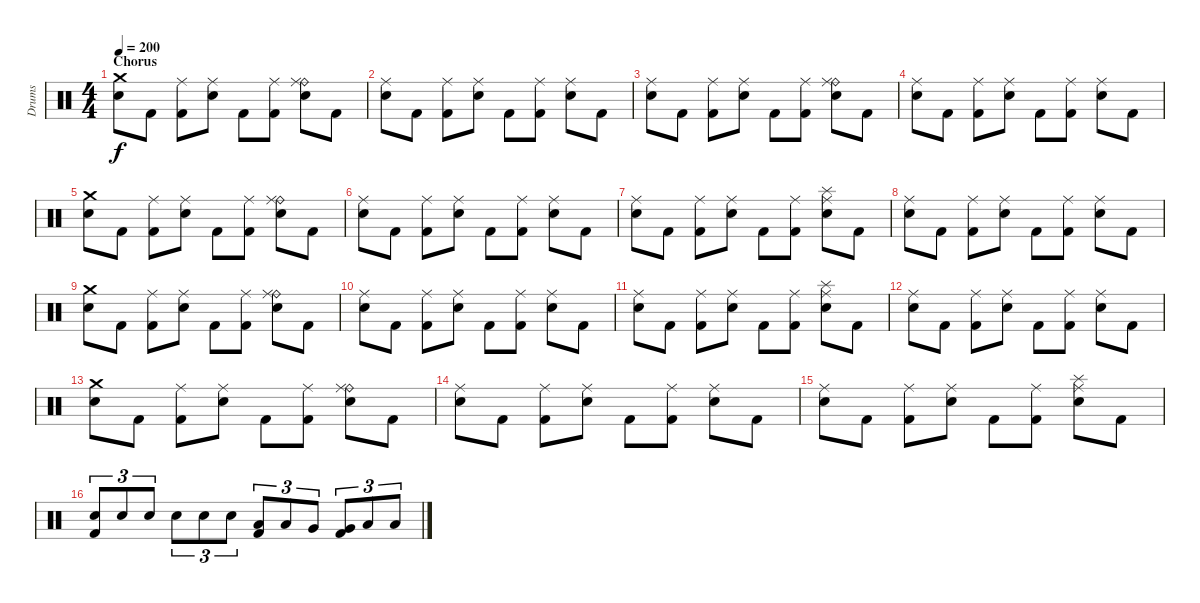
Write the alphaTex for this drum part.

\track ("Drums" "Drums") {instrument percussion}
\staff {score}
\articulation defaults
\ts (4 4)
\section ("" "Chorus")
\tempo 200
\clef neutral
\ks c
("Crash medium (hit)" "Electric Snare (hit)").8{dy f} "Kick (hit) 2".8 ("Ride (middle)" "Kick (hit) 2").8 ("Ride (middle)" "Electric Snare (hit)").8 "Kick (hit) 2".8 ("Ride (middle)" "Kick (hit) 2").8 ("Ride (bell)" "Ride (middle)" "Electric Snare (hit)").8 "Kick (hit) 2".8 |
("Ride (middle)" "Electric Snare (hit)").8 "Kick (hit) 2".8 ("Ride (middle)" "Kick (hit) 2").8 ("Ride (middle)" "Electric Snare (hit)").8 "Kick (hit) 2".8 ("Ride (middle)" "Kick (hit) 2").8 ("Ride (middle)" "Electric Snare (hit)").8 "Kick (hit) 2".8 |
("Ride (middle)" "Electric Snare (hit)").8 "Kick (hit) 2".8 ("Ride (middle)" "Kick (hit) 2").8 ("Ride (middle)" "Electric Snare (hit)").8 "Kick (hit) 2".8 ("Ride (middle)" "Kick (hit) 2").8 ("Ride (bell)" "Ride (middle)" "Electric Snare (hit)").8 "Kick (hit) 2".8 |
("Ride (middle)" "Electric Snare (hit)").8 "Kick (hit) 2".8 ("Ride (middle)" "Kick (hit) 2").8 ("Ride (middle)" "Electric Snare (hit)").8 "Kick (hit) 2".8 ("Ride (middle)" "Kick (hit) 2").8 ("Ride (middle)" "Electric Snare (hit)").8 "Kick (hit) 2".8 |
("Crash medium (hit)" "Electric Snare (hit)").8 "Kick (hit) 2".8 ("Ride (middle)" "Kick (hit) 2").8 ("Ride (middle)" "Electric Snare (hit)").8 "Kick (hit) 2".8 ("Ride (middle)" "Kick (hit) 2").8 ("Ride (bell)" "Ride (middle)" "Electric Snare (hit)").8 "Kick (hit) 2".8 |
("Ride (middle)" "Electric Snare (hit)").8 "Kick (hit) 2".8 ("Ride (middle)" "Kick (hit) 2").8 ("Ride (middle)" "Electric Snare (hit)").8 "Kick (hit) 2".8 ("Ride (middle)" "Kick (hit) 2").8 ("Ride (middle)" "Electric Snare (hit)").8 "Kick (hit) 2".8 |
("Ride (middle)" "Electric Snare (hit)").8 "Kick (hit) 2".8 ("Ride (middle)" "Kick (hit) 2").8 ("Ride (middle)" "Electric Snare (hit)").8 "Kick (hit) 2".8 ("Ride (middle)" "Kick (hit) 2").8 ("Ride (middle)" "Splash (hit)" "Electric Snare (hit)").8 "Kick (hit) 2".8 |
("Ride (middle)" "Electric Snare (hit)").8 "Kick (hit) 2".8 ("Ride (middle)" "Kick (hit) 2").8 ("Ride (middle)" "Electric Snare (hit)").8 "Kick (hit) 2".8 ("Ride (middle)" "Kick (hit) 2").8 ("Ride (middle)" "Electric Snare (hit)").8 "Kick (hit) 2".8 |
("Crash medium (hit)" "Electric Snare (hit)").8 "Kick (hit) 2".8 ("Ride (middle)" "Kick (hit) 2").8 ("Ride (middle)" "Electric Snare (hit)").8 "Kick (hit) 2".8 ("Ride (middle)" "Kick (hit) 2").8 ("Ride (bell)" "Ride (middle)" "Electric Snare (hit)").8 "Kick (hit) 2".8 |
("Ride (middle)" "Electric Snare (hit)").8 "Kick (hit) 2".8 ("Ride (middle)" "Kick (hit) 2").8 ("Ride (middle)" "Electric Snare (hit)").8 "Kick (hit) 2".8 ("Ride (middle)" "Kick (hit) 2").8 ("Ride (middle)" "Electric Snare (hit)").8 "Kick (hit) 2".8 |
("Ride (middle)" "Electric Snare (hit)").8 "Kick (hit) 2".8 ("Ride (middle)" "Kick (hit) 2").8 ("Ride (middle)" "Electric Snare (hit)").8 "Kick (hit) 2".8 ("Ride (middle)" "Kick (hit) 2").8 ("Ride (middle)" "Splash (hit)" "Electric Snare (hit)").8 "Kick (hit) 2".8 |
("Ride (middle)" "Electric Snare (hit)").8 "Kick (hit) 2".8 ("Ride (middle)" "Kick (hit) 2").8 ("Ride (middle)" "Electric Snare (hit)").8 "Kick (hit) 2".8 ("Ride (middle)" "Kick (hit) 2").8 ("Ride (middle)" "Electric Snare (hit)").8 "Kick (hit) 2".8 |
("Crash medium (hit)" "Electric Snare (hit)").8 "Kick (hit) 2".8 ("Ride (middle)" "Kick (hit) 2").8 ("Ride (middle)" "Electric Snare (hit)").8 "Kick (hit) 2".8 ("Ride (middle)" "Kick (hit) 2").8 ("Ride (bell)" "Ride (middle)" "Electric Snare (hit)").8 "Kick (hit) 2".8 |
("Ride (middle)" "Electric Snare (hit)").8 "Kick (hit) 2".8 ("Ride (middle)" "Kick (hit) 2").8 ("Ride (middle)" "Electric Snare (hit)").8 "Kick (hit) 2".8 ("Ride (middle)" "Kick (hit) 2").8 ("Ride (middle)" "Electric Snare (hit)").8 "Kick (hit) 2".8 |
("Ride (middle)" "Electric Snare (hit)").8 "Kick (hit) 2".8 ("Ride (middle)" "Kick (hit) 2").8 ("Ride (middle)" "Electric Snare (hit)").8 "Kick (hit) 2".8 ("Ride (middle)" "Kick (hit) 2").8 ("Ride (middle)" "Splash (hit)" "Electric Snare (hit)").8 "Kick (hit) 2".8 |
("Electric Snare (hit)" "Kick (hit) 2").8{tu (3 2)} "Electric Snare (hit)".8{tu (3 2)} "Electric Snare (hit)".8{tu (3 2)} "Electric Snare (hit)".8{tu (3 2)} "Electric Snare (hit)".8{tu (3 2)} "Electric Snare (hit)".8{tu (3 2)} ("Low Tom (hit)" "Kick (hit) 2").8{tu (3 2)} "Low Tom (hit)".8{tu (3 2)} "Very Low Tom (hit)".8{tu (3 2)} ("Very Low Tom (hit)" "Kick (hit) 2").8{tu (3 2)} "Low Floor Tom (hit)".8{tu (3 2)} "Low Floor Tom (hit)".8{tu (3 2)}
